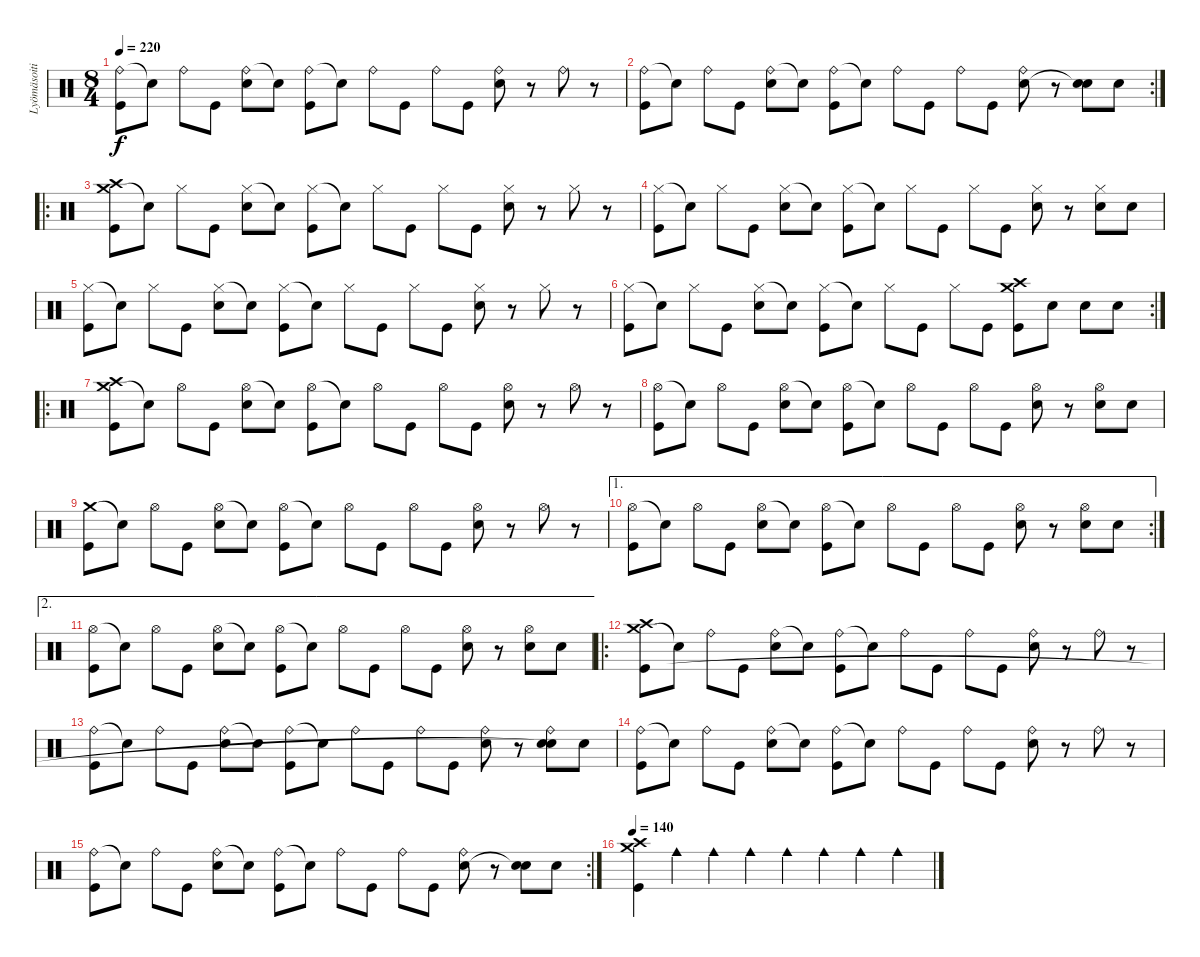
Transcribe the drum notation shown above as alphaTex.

\track ("Lyömäsoitin" "Lyömäsoiti") {instrument percussion}
\staff {score}
\articulation defaults
\ts (8 4)
\tempo 220
\clef neutral
\ks c
("Ride (bell)" "Kick (hit)").8{dy f} "Snare (hit)"{t}.8 "Ride (bell)".8 "Kick (hit)".8 ("Ride (bell)" "Snare (hit) 2").8 "Snare (hit)"{t}.8 ("Ride (bell)" "Kick (hit)").8 "Snare (hit)"{t}.8 "Ride (bell)".8 "Kick (hit)".8 "Ride (bell)".8 "Kick (hit)".8 ("Ride (bell)" "Snare (hit) 2").8 r.8 "Ride (bell)".8 r.8 |
\rc 2
("Ride (bell)" "Kick (hit)").8 "Snare (hit)"{t}.8 "Ride (bell)".8 "Kick (hit)".8 ("Ride (bell)" "Snare (hit) 2").8 "Snare (hit)"{t}.8 ("Ride (bell)" "Kick (hit)").8 "Snare (hit)"{t}.8 "Ride (bell)".8 "Kick (hit)".8 "Ride (bell)".8 "Kick (hit)".8 ("Ride (bell)" "Snare (hit) 2").8 r.8 ("Snare (hit) 2" "Snare (hit)"{t}).8 "Snare (hit) 2".8 |
\ro
("Crash medium (hit)" "Crash high (hit)" "Kick (hit)").8 "Snare (hit)"{t}.8 "Hi-Hat (closed)".8 "Kick (hit)".8 ("Hi-Hat (closed)" "Snare (hit) 2").8 "Snare (hit)"{t}.8 ("Hi-Hat (closed)" "Kick (hit)").8 "Snare (hit)"{t}.8 "Hi-Hat (closed)".8 "Kick (hit)".8 "Hi-Hat (closed)".8 "Kick (hit)".8 ("Hi-Hat (closed)" "Snare (hit) 2").8 r.8 "Hi-Hat (closed)".8 r.8 |
("Hi-Hat (closed)" "Kick (hit)").8 "Snare (hit)"{t}.8 "Hi-Hat (closed)".8 "Kick (hit)".8 ("Hi-Hat (closed)" "Snare (hit) 2").8 "Snare (hit)"{t}.8 ("Hi-Hat (closed)" "Kick (hit)").8 "Snare (hit)"{t}.8 "Hi-Hat (closed)".8 "Kick (hit)".8 "Hi-Hat (closed)".8 "Kick (hit)".8 ("Hi-Hat (closed)" "Snare (hit) 2").8 r.8 ("Hi-Hat (closed)" "Snare (hit) 2").8 "Snare (hit) 2".8 |
("Hi-Hat (closed)" "Kick (hit)").8 "Snare (hit)"{t}.8 "Hi-Hat (closed)".8 "Kick (hit)".8 ("Hi-Hat (closed)" "Snare (hit) 2").8 "Snare (hit)"{t}.8 ("Hi-Hat (closed)" "Kick (hit)").8 "Snare (hit)"{t}.8 "Hi-Hat (closed)".8 "Kick (hit)".8 "Hi-Hat (closed)".8 "Kick (hit)".8 ("Hi-Hat (closed)" "Snare (hit) 2").8 r.8 "Hi-Hat (closed)".8 r.8 |
\rc 2
("Hi-Hat (closed)" "Kick (hit)").8 "Snare (hit)"{t}.8 "Hi-Hat (closed)".8 "Kick (hit)".8 ("Hi-Hat (closed)" "Snare (hit) 2").8 "Snare (hit)"{t}.8 ("Hi-Hat (closed)" "Kick (hit)").8 "Snare (hit)"{t}.8 "Hi-Hat (closed)".8 "Kick (hit)".8 "Hi-Hat (closed)".8 "Kick (hit)".8 ("Crash medium (hit)" "Crash high (hit)" "Kick (hit)").8 "Snare (hit) 2".8 "Snare (hit) 2".8 "Snare (hit) 2".8 |
\ro
("Crash medium (hit)" "Crash high (hit)" "Kick (hit)").8 "Snare (hit)"{t}.8 "Hi-Hat (open)".8 "Kick (hit)".8 ("Hi-Hat (open)" "Snare (hit) 2").8 "Snare (hit)"{t}.8 ("Hi-Hat (open)" "Kick (hit)").8 "Snare (hit)"{t}.8 "Hi-Hat (open)".8 "Kick (hit)".8 "Hi-Hat (open)".8 "Kick (hit)".8 ("Hi-Hat (open)" "Snare (hit) 2").8 r.8 "Hi-Hat (open)".8 r.8 |
("Hi-Hat (open)" "Kick (hit)").8 "Snare (hit)"{t}.8 "Hi-Hat (open)".8 "Kick (hit)".8 ("Hi-Hat (open)" "Snare (hit) 2").8 "Snare (hit)"{t}.8 ("Hi-Hat (open)" "Kick (hit)").8 "Snare (hit)"{t}.8 "Hi-Hat (open)".8 "Kick (hit)".8 "Hi-Hat (open)".8 "Kick (hit)".8 ("Hi-Hat (open)" "Snare (hit) 2").8 r.8 ("Hi-Hat (open)" "Snare (hit) 2").8 "Snare (hit) 2".8 |
("Crash medium (hit)" "Kick (hit)").8 "Snare (hit)"{t}.8 "Hi-Hat (open)".8 "Kick (hit)".8 ("Hi-Hat (open)" "Snare (hit) 2").8 "Snare (hit)"{t}.8 ("Hi-Hat (open)" "Kick (hit)").8 "Snare (hit)"{t}.8 "Hi-Hat (open)".8 "Kick (hit)".8 "Hi-Hat (open)".8 "Kick (hit)".8 ("Hi-Hat (open)" "Snare (hit) 2").8 r.8 "Hi-Hat (open)".8 r.8 |
\ae 1
\rc 2
("Hi-Hat (open)" "Kick (hit)").8 "Snare (hit)"{t}.8 "Hi-Hat (open)".8 "Kick (hit)".8 ("Hi-Hat (open)" "Snare (hit) 2").8 "Snare (hit)"{t}.8 ("Hi-Hat (open)" "Kick (hit)").8 "Snare (hit)"{t}.8 "Hi-Hat (open)".8 "Kick (hit)".8 "Hi-Hat (open)".8 "Kick (hit)".8 ("Hi-Hat (open)" "Snare (hit) 2").8 r.8 ("Hi-Hat (open)" "Snare (hit) 2").8 "Snare (hit) 2".8 |
\ae 2
("Hi-Hat (open)" "Kick (hit)").8 "Snare (hit)"{t}.8 "Hi-Hat (open)".8 "Kick (hit)".8 ("Hi-Hat (open)" "Snare (hit) 2").8 "Snare (hit)"{t}.8 ("Hi-Hat (open)" "Kick (hit)").8 "Snare (hit)"{t}.8 "Hi-Hat (open)".8 "Kick (hit)".8 "Hi-Hat (open)".8 "Kick (hit)".8 ("Hi-Hat (open)" "Snare (hit) 2").8 r.8 ("Hi-Hat (open)" "Snare (hit) 2").8 "Snare (hit) 2".8 |
\ro
("Crash medium (hit)" "Crash high (hit)" "Kick (hit)").8 "Snare (hit)"{t}.8 "Ride (bell)".8 "Kick (hit)".8 ("Ride (bell)" "Snare (hit) 2").8 "Snare (hit)"{t}.8 ("Ride (bell)" "Kick (hit)").8 "Snare (hit)"{t}.8 "Ride (bell)".8 "Kick (hit)".8 "Ride (bell)".8 "Kick (hit)".8 ("Ride (bell)" "Snare (hit) 2").8 r.8 "Ride (bell)".8 r.8 |
("Ride (bell)" "Kick (hit)").8 "Snare (hit)"{t}.8 "Ride (bell)".8 "Kick (hit)".8 ("Ride (bell)" "Snare (hit) 2").8 "Snare (hit)"{t}.8 ("Ride (bell)" "Kick (hit)").8 "Snare (hit)"{t}.8 "Ride (bell)".8 "Kick (hit)".8 "Ride (bell)".8 "Kick (hit)".8 ("Ride (bell)" "Snare (hit) 2").8 r.8 ("Ride (bell)" "Snare (hit) 2" "Snare (hit)"{t}).8 "Snare (hit) 2".8 |
("Ride (bell)" "Kick (hit)").8 "Snare (hit)"{t}.8 "Ride (bell)".8 "Kick (hit)".8 ("Ride (bell)" "Snare (hit) 2").8 "Snare (hit)"{t}.8 ("Ride (bell)" "Kick (hit)").8 "Snare (hit)"{t}.8 "Ride (bell)".8 "Kick (hit)".8 "Ride (bell)".8 "Kick (hit)".8 ("Ride (bell)" "Snare (hit) 2").8 r.8 "Ride (bell)".8 r.8 |
\rc 2
("Ride (bell)" "Kick (hit)").8 "Snare (hit)"{t}.8 "Ride (bell)".8 "Kick (hit)".8 ("Ride (bell)" "Snare (hit) 2").8 "Snare (hit)"{t}.8 ("Ride (bell)" "Kick (hit)").8 "Snare (hit)"{t}.8 "Ride (bell)".8 "Kick (hit)".8 "Ride (bell)".8 "Kick (hit)".8 ("Ride (bell)" "Snare (hit) 2").8 r.8 ("Snare (hit) 2" "Snare (hit)"{t}).8 "Snare (hit) 2".8 |
\tempo 140
("Crash medium (hit)" "Crash high (hit)" "Kick (hit)").4 "Cowbell medium (hit)".4 "Cowbell medium (hit)".4 "Cowbell medium (hit)".4 "Cowbell medium (hit)".4 "Cowbell medium (hit)".4 "Cowbell medium (hit)".4 "Cowbell medium (hit)".4
